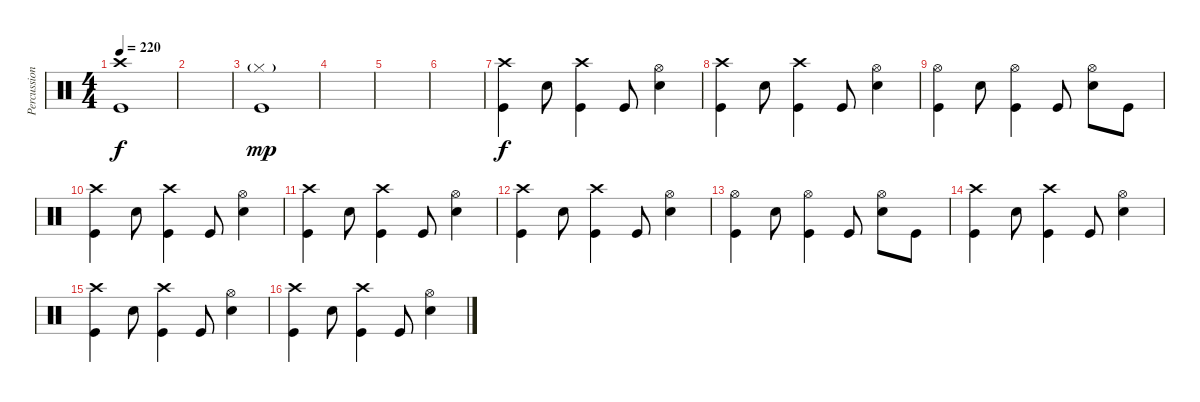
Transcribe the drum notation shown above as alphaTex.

\track ("Percussion" "Percussion") {instrument percussion}
\staff {score}
\articulation defaults
\ts (4 4)
\tempo 220
\clef neutral
\ks c
("Crash high (hit)" "Kick (hit)").1{dy f} |
|
("Hi-Hat (closed)"{g} "Kick (hit)").1{dy mp} |
|
|
|
("Crash high (hit)" "Kick (hit)").4{dy f} "Electric Snare (hit)".8 ("Crash high (hit)" "Kick (hit)").4 "Kick (hit)".8 ("Hi-Hat (open)" "Electric Snare (hit)").4 |
("Crash high (hit)" "Kick (hit)").4 "Electric Snare (hit)".8 ("Crash high (hit)" "Kick (hit)").4 "Kick (hit)".8 ("Hi-Hat (open)" "Electric Snare (hit)").4 |
("Hi-Hat (open)" "Kick (hit)").4 "Electric Snare (hit)".8 ("Hi-Hat (open)" "Kick (hit)").4 "Kick (hit)".8 ("Hi-Hat (open)" "Electric Snare (hit)").8 "Kick (hit)".8 |
("Crash high (hit)" "Kick (hit)").4 "Electric Snare (hit)".8 ("Crash high (hit)" "Kick (hit)").4 "Kick (hit)".8 ("Hi-Hat (open)" "Electric Snare (hit)").4 |
("Crash high (hit)" "Kick (hit)").4 "Electric Snare (hit)".8 ("Crash high (hit)" "Kick (hit)").4 "Kick (hit)".8 ("Hi-Hat (open)" "Electric Snare (hit)").4 |
("Crash high (hit)" "Kick (hit)").4 "Electric Snare (hit)".8 ("Crash high (hit)" "Kick (hit)").4 "Kick (hit)".8 ("Hi-Hat (open)" "Electric Snare (hit)").4 |
("Hi-Hat (open)" "Kick (hit)").4 "Electric Snare (hit)".8 ("Hi-Hat (open)" "Kick (hit)").4 "Kick (hit)".8 ("Hi-Hat (open)" "Electric Snare (hit)").8 "Kick (hit)".8 |
("Crash high (hit)" "Kick (hit)").4 "Electric Snare (hit)".8 ("Crash high (hit)" "Kick (hit)").4 "Kick (hit)".8 ("Hi-Hat (open)" "Electric Snare (hit)").4 |
("Crash high (hit)" "Kick (hit)").4 "Electric Snare (hit)".8 ("Crash high (hit)" "Kick (hit)").4 "Kick (hit)".8 ("Hi-Hat (open)" "Electric Snare (hit)").4 |
("Crash high (hit)" "Kick (hit)").4 "Electric Snare (hit)".8 ("Crash high (hit)" "Kick (hit)").4 "Kick (hit)".8 ("Hi-Hat (open)" "Electric Snare (hit)").4
